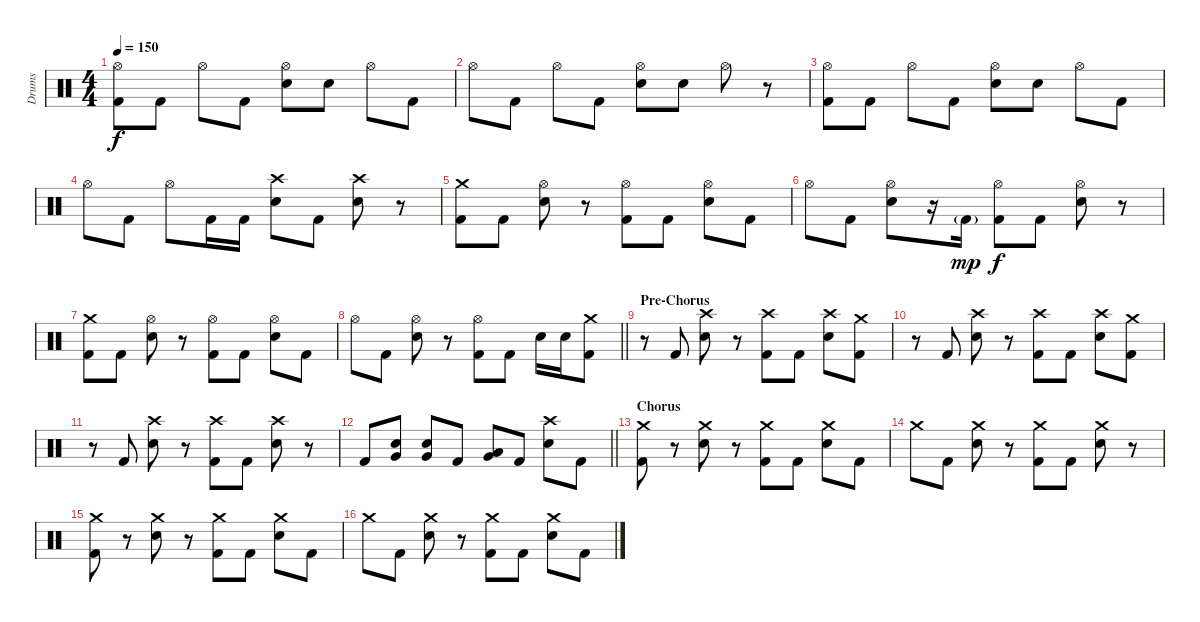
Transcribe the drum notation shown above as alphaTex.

\track ("Drums" "Drums") {instrument percussion}
\staff {score}
\articulation defaults
\ts (4 4)
\tempo 150
\clef neutral
\ks c
("Hi-Hat (open)" "Kick (hit) 2").8{dy f} "Kick (hit) 2".8 "Hi-Hat (open)".8 "Kick (hit) 2".8 ("Hi-Hat (open)" "Electric Snare (hit)").8 "Electric Snare (hit)".8 "Hi-Hat (open)".8 "Kick (hit) 2".8 |
"Hi-Hat (open)".8 "Kick (hit) 2".8 "Hi-Hat (open)".8 "Kick (hit) 2".8 ("Hi-Hat (open)" "Electric Snare (hit)").8 "Electric Snare (hit)".8 "Hi-Hat (open)".8 r.8 |
("Hi-Hat (open)" "Kick (hit) 2").8 "Kick (hit) 2".8 "Hi-Hat (open)".8 "Kick (hit) 2".8 ("Hi-Hat (open)" "Electric Snare (hit)").8 "Electric Snare (hit)".8 "Hi-Hat (open)".8 "Kick (hit) 2".8 |
"Hi-Hat (open)".8 "Kick (hit) 2".8 "Hi-Hat (open)".8 "Kick (hit) 2".16 "Kick (hit) 2".16 ("Crash high (hit)" "Electric Snare (hit)").8 "Kick (hit) 2".8 ("Crash high (hit)" "Electric Snare (hit)").8 r.8 |
("Crash medium (hit)" "Kick (hit) 2").8 "Kick (hit) 2".8 ("Hi-Hat (open)" "Electric Snare (hit)").8 r.8 ("Hi-Hat (open)" "Kick (hit) 2").8 "Kick (hit) 2".8 ("Hi-Hat (open)" "Electric Snare (hit)").8 "Kick (hit) 2".8 |
"Hi-Hat (open)".8 "Kick (hit) 2".8 ("Hi-Hat (open)" "Electric Snare (hit)").8 r.16 "Kick (hit) 2"{g}.16{dy mp} ("Hi-Hat (open)" "Kick (hit) 2").8{dy f} "Kick (hit) 2".8 ("Hi-Hat (open)" "Electric Snare (hit)").8 r.8 |
("Crash medium (hit)" "Kick (hit) 2").8 "Kick (hit) 2".8 ("Hi-Hat (open)" "Electric Snare (hit)").8 r.8 ("Hi-Hat (open)" "Kick (hit) 2").8 "Kick (hit) 2".8 ("Hi-Hat (open)" "Electric Snare (hit)").8 "Kick (hit) 2".8 |
\barLineRight lightlight "Hi-Hat (open)".8 "Kick (hit) 2".8
("Hi-Hat (open)" "Electric Snare (hit)").8 r.8 ("Hi-Hat (open)" "Kick (hit) 2").8 "Kick (hit) 2".8 "Electric Snare (hit)".16 "Electric Snare (hit)".16 ("Crash medium (hit)" "Kick (hit) 2").8 |
\section ("" "Pre-Chorus")
r.8 "Kick (hit) 2".8 ("Crash high (hit)" "Electric Snare (hit)").8 r.8 ("Crash high (hit)" "Kick (hit) 2").8 "Kick (hit) 2".8 ("Crash high (hit)" "Electric Snare (hit)").8 ("Crash medium (hit)" "Kick (hit) 2").8 |
r.8 "Kick (hit) 2".8 ("Crash high (hit)" "Electric Snare (hit)").8 r.8 ("Crash high (hit)" "Kick (hit) 2").8 "Kick (hit) 2".8 ("Crash high (hit)" "Electric Snare (hit)").8 ("Crash medium (hit)" "Kick (hit) 2").8 |
r.8 "Kick (hit) 2".8 ("Crash high (hit)" "Electric Snare (hit)").8 r.8 ("Crash high (hit)" "Kick (hit) 2").8 "Kick (hit) 2".8 ("Crash high (hit)" "Electric Snare (hit)").8 r.8 |
\barLineRight lightlight "Kick (hit) 2".8
("Very Low Tom (hit)" "Electric Snare (hit)").8 ("Very Low Tom (hit)" "Electric Snare (hit)").8 "Kick (hit) 2".8 ("Very Low Tom (hit)" "Low Floor Tom (hit)").8 "Kick (hit) 2".8 ("Crash high (hit)" "Electric Snare (hit)").8 "Kick (hit) 2".8 |
\section ("" "Chorus")
("Crash medium (hit)" "Kick (hit) 2").8 r.8 ("Crash medium (hit)" "Electric Snare (hit)").8 r.8 ("Crash medium (hit)" "Kick (hit) 2").8 "Kick (hit) 2".8 ("Crash medium (hit)" "Electric Snare (hit)").8 "Kick (hit) 2".8 |
"Crash medium (hit)".8 "Kick (hit) 2".8 ("Crash medium (hit)" "Electric Snare (hit)").8 r.8 ("Crash medium (hit)" "Kick (hit) 2").8 "Kick (hit) 2".8 ("Crash medium (hit)" "Electric Snare (hit)").8 r.8 |
("Crash medium (hit)" "Kick (hit) 2").8 r.8 ("Crash medium (hit)" "Electric Snare (hit)").8 r.8 ("Crash medium (hit)" "Kick (hit) 2").8 "Kick (hit) 2".8 ("Crash medium (hit)" "Electric Snare (hit)").8 "Kick (hit) 2".8 |
"Crash medium (hit)".8 "Kick (hit) 2".8 ("Crash medium (hit)" "Electric Snare (hit)").8 r.8 ("Crash medium (hit)" "Kick (hit) 2").8 "Kick (hit) 2".8 ("Crash medium (hit)" "Electric Snare (hit)").8 "Kick (hit) 2".8
